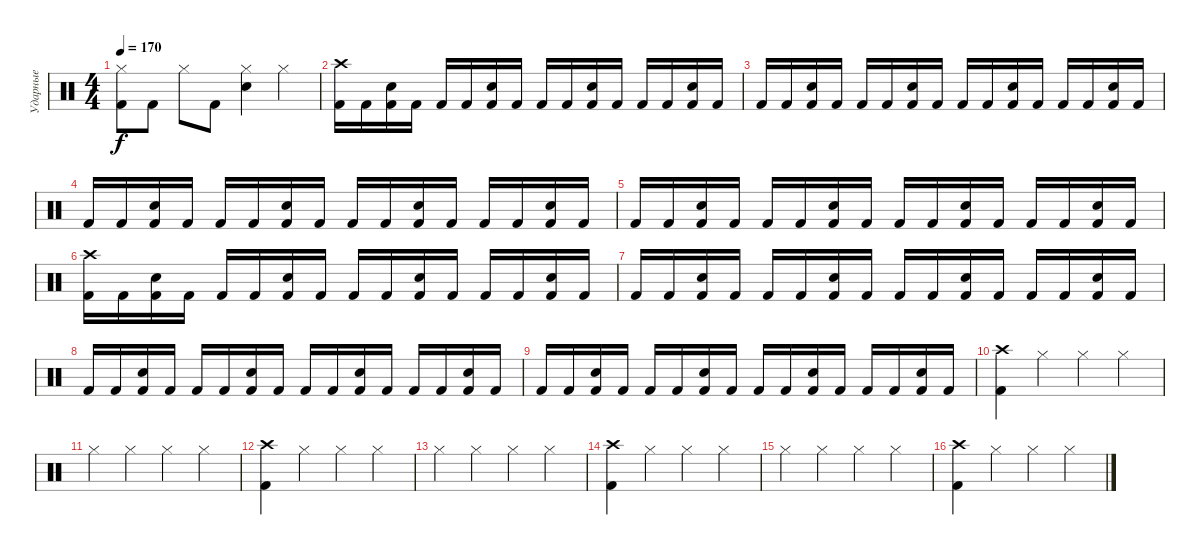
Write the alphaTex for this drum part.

\track ("Ударные" "Ударные") {instrument percussion}
\staff {score}
\articulation defaults
\ts (4 4)
\tempo 170
\clef neutral
\ks c
("Kick (hit) 2" "Hi-Hat (closed)").8{dy f} "Kick (hit) 2".8 "Hi-Hat (closed)".8 "Kick (hit) 2".8 ("Hi-Hat (closed)" "Electric Snare (hit)").4 "Hi-Hat (closed)".4 |
("Kick (hit) 2" "Crash high (hit)").16 "Kick (hit) 2".16 ("Kick (hit) 2" "Electric Snare (hit)").16 "Kick (hit) 2".16 "Kick (hit) 2".16 "Kick (hit) 2".16 ("Kick (hit) 2" "Electric Snare (hit)").16 "Kick (hit) 2".16 "Kick (hit) 2".16 "Kick (hit) 2".16 ("Kick (hit) 2" "Electric Snare (hit)").16 "Kick (hit) 2".16 "Kick (hit) 2".16 "Kick (hit) 2".16 ("Kick (hit) 2" "Electric Snare (hit)").16 "Kick (hit) 2".16 |
"Kick (hit) 2".16 "Kick (hit) 2".16 ("Kick (hit) 2" "Electric Snare (hit)").16 "Kick (hit) 2".16 "Kick (hit) 2".16 "Kick (hit) 2".16 ("Kick (hit) 2" "Electric Snare (hit)").16 "Kick (hit) 2".16 "Kick (hit) 2".16 "Kick (hit) 2".16 ("Kick (hit) 2" "Electric Snare (hit)").16 "Kick (hit) 2".16 "Kick (hit) 2".16 "Kick (hit) 2".16 ("Kick (hit) 2" "Electric Snare (hit)").16 "Kick (hit) 2".16 |
"Kick (hit) 2".16 "Kick (hit) 2".16 ("Kick (hit) 2" "Electric Snare (hit)").16 "Kick (hit) 2".16 "Kick (hit) 2".16 "Kick (hit) 2".16 ("Kick (hit) 2" "Electric Snare (hit)").16 "Kick (hit) 2".16 "Kick (hit) 2".16 "Kick (hit) 2".16 ("Kick (hit) 2" "Electric Snare (hit)").16 "Kick (hit) 2".16 "Kick (hit) 2".16 "Kick (hit) 2".16 ("Kick (hit) 2" "Electric Snare (hit)").16 "Kick (hit) 2".16 |
"Kick (hit) 2".16 "Kick (hit) 2".16 ("Kick (hit) 2" "Electric Snare (hit)").16 "Kick (hit) 2".16 "Kick (hit) 2".16 "Kick (hit) 2".16 ("Kick (hit) 2" "Electric Snare (hit)").16 "Kick (hit) 2".16 "Kick (hit) 2".16 "Kick (hit) 2".16 ("Kick (hit) 2" "Electric Snare (hit)").16 "Kick (hit) 2".16 "Kick (hit) 2".16 "Kick (hit) 2".16 ("Kick (hit) 2" "Electric Snare (hit)").16 "Kick (hit) 2".16 |
("Kick (hit) 2" "Crash high (hit)").16 "Kick (hit) 2".16 ("Kick (hit) 2" "Electric Snare (hit)").16 "Kick (hit) 2".16 "Kick (hit) 2".16 "Kick (hit) 2".16 ("Kick (hit) 2" "Electric Snare (hit)").16 "Kick (hit) 2".16 "Kick (hit) 2".16 "Kick (hit) 2".16 ("Kick (hit) 2" "Electric Snare (hit)").16 "Kick (hit) 2".16 "Kick (hit) 2".16 "Kick (hit) 2".16 ("Kick (hit) 2" "Electric Snare (hit)").16 "Kick (hit) 2".16 |
"Kick (hit) 2".16 "Kick (hit) 2".16 ("Kick (hit) 2" "Electric Snare (hit)").16 "Kick (hit) 2".16 "Kick (hit) 2".16 "Kick (hit) 2".16 ("Kick (hit) 2" "Electric Snare (hit)").16 "Kick (hit) 2".16 "Kick (hit) 2".16 "Kick (hit) 2".16 ("Kick (hit) 2" "Electric Snare (hit)").16 "Kick (hit) 2".16 "Kick (hit) 2".16 "Kick (hit) 2".16 ("Kick (hit) 2" "Electric Snare (hit)").16 "Kick (hit) 2".16 |
"Kick (hit) 2".16 "Kick (hit) 2".16 ("Kick (hit) 2" "Electric Snare (hit)").16 "Kick (hit) 2".16 "Kick (hit) 2".16 "Kick (hit) 2".16 ("Kick (hit) 2" "Electric Snare (hit)").16 "Kick (hit) 2".16 "Kick (hit) 2".16 "Kick (hit) 2".16 ("Kick (hit) 2" "Electric Snare (hit)").16 "Kick (hit) 2".16 "Kick (hit) 2".16 "Kick (hit) 2".16 ("Kick (hit) 2" "Electric Snare (hit)").16 "Kick (hit) 2".16 |
"Kick (hit) 2".16 "Kick (hit) 2".16 ("Kick (hit) 2" "Electric Snare (hit)").16 "Kick (hit) 2".16 "Kick (hit) 2".16 "Kick (hit) 2".16 ("Kick (hit) 2" "Electric Snare (hit)").16 "Kick (hit) 2".16 "Kick (hit) 2".16 "Kick (hit) 2".16 ("Kick (hit) 2" "Electric Snare (hit)").16 "Kick (hit) 2".16 "Kick (hit) 2".16 "Kick (hit) 2".16 ("Kick (hit) 2" "Electric Snare (hit)").16 "Kick (hit) 2".16 |
("Crash high (hit)" "Kick (hit) 2").4 "Hi-Hat (closed)".4 "Hi-Hat (closed)".4 "Hi-Hat (closed)".4 |
"Hi-Hat (closed)".4 "Hi-Hat (closed)".4 "Hi-Hat (closed)".4 "Hi-Hat (closed)".4 |
("Crash high (hit)" "Kick (hit) 2").4 "Hi-Hat (closed)".4 "Hi-Hat (closed)".4 "Hi-Hat (closed)".4 |
"Hi-Hat (closed)".4 "Hi-Hat (closed)".4 "Hi-Hat (closed)".4 "Hi-Hat (closed)".4 |
("Crash high (hit)" "Kick (hit) 2").4 "Hi-Hat (closed)".4 "Hi-Hat (closed)".4 "Hi-Hat (closed)".4 |
"Hi-Hat (closed)".4 "Hi-Hat (closed)".4 "Hi-Hat (closed)".4 "Hi-Hat (closed)".4 |
("Crash high (hit)" "Kick (hit) 2").4 "Hi-Hat (closed)".4 "Hi-Hat (closed)".4 "Hi-Hat (closed)".4
